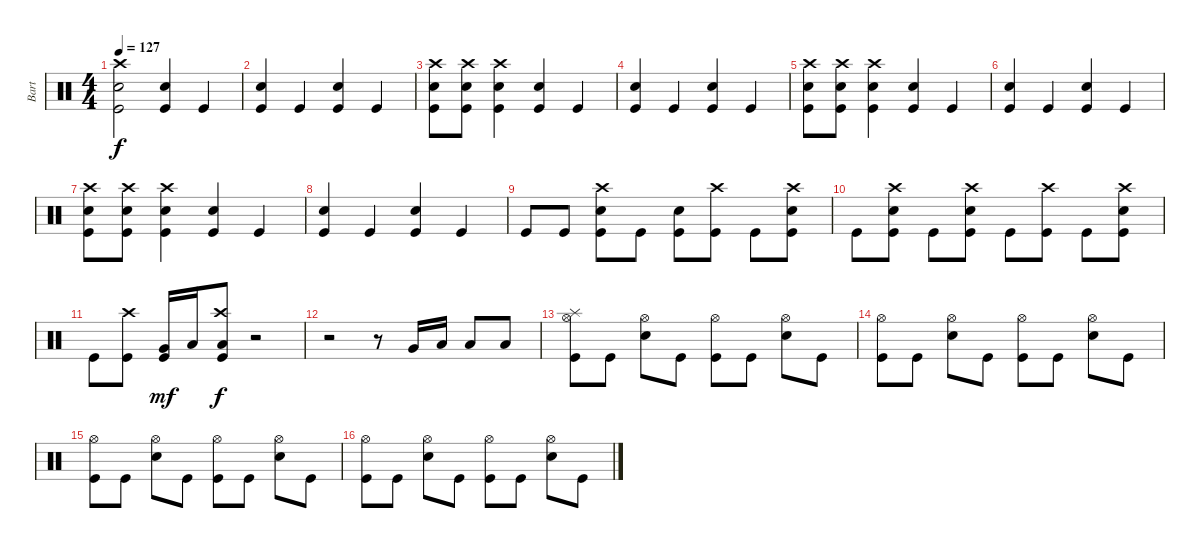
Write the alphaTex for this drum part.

\track ("Bart" "Bart") {instrument percussion}
\staff {score}
\articulation defaults
\ts (4 4)
\tempo 127
\clef neutral
\ks c
("Kick (hit)" "Electric Snare (hit)" "Crash high (hit)").2{dy f} ("Kick (hit)" "Electric Snare (hit)").4 "Kick (hit)".4 |
("Kick (hit)" "Electric Snare (hit)").4 "Kick (hit)".4 ("Kick (hit)" "Electric Snare (hit)").4 "Kick (hit)".4 |
("Kick (hit)" "Electric Snare (hit)" "Crash high (hit)").8 ("Kick (hit)" "Electric Snare (hit)" "Crash high (hit)").8 ("Kick (hit)" "Electric Snare (hit)" "Crash high (hit)").4 ("Kick (hit)" "Electric Snare (hit)").4 "Kick (hit)".4 |
("Kick (hit)" "Electric Snare (hit)").4 "Kick (hit)".4 ("Kick (hit)" "Electric Snare (hit)").4 "Kick (hit)".4 |
("Kick (hit)" "Electric Snare (hit)" "Crash high (hit)").8 ("Kick (hit)" "Electric Snare (hit)" "Crash high (hit)").8 ("Kick (hit)" "Electric Snare (hit)" "Crash high (hit)").4 ("Kick (hit)" "Electric Snare (hit)").4 "Kick (hit)".4 |
("Kick (hit)" "Electric Snare (hit)").4 "Kick (hit)".4 ("Kick (hit)" "Electric Snare (hit)").4 "Kick (hit)".4 |
("Kick (hit)" "Electric Snare (hit)" "Crash high (hit)").8 ("Kick (hit)" "Electric Snare (hit)" "Crash high (hit)").8 ("Kick (hit)" "Electric Snare (hit)" "Crash high (hit)").4 ("Kick (hit)" "Electric Snare (hit)").4 "Kick (hit)".4 |
("Kick (hit)" "Electric Snare (hit)").4 "Kick (hit)".4 ("Kick (hit)" "Electric Snare (hit)").4 "Kick (hit)".4 |
"Kick (hit)".8 "Kick (hit)".8 ("Kick (hit)" "Electric Snare (hit)" "Crash high (hit)").8 "Kick (hit)".8 ("Kick (hit)" "Electric Snare (hit)").8 ("Kick (hit)" "Crash high (hit)").8 "Kick (hit)".8 ("Kick (hit)" "Electric Snare (hit)" "Crash high (hit)").8 |
"Kick (hit)".8 ("Kick (hit)" "Electric Snare (hit)" "Crash high (hit)").8 "Kick (hit)".8 ("Kick (hit)" "Electric Snare (hit)" "Crash high (hit)").8 "Kick (hit)".8 ("Kick (hit)" "Crash high (hit)").8 "Kick (hit)".8 ("Kick (hit)" "Electric Snare (hit)" "Crash high (hit)").8 |
"Kick (hit)".8 ("Kick (hit)" "Crash high (hit)").8 ("Kick (hit)" "Very Low Tom (hit)").16{dy mf} "Low Tom (hit)".16 ("Kick (hit)" "Low Floor Tom (hit)" "Crash high (hit)").8{dy f} r.2 |
r.2 r.8 "Very Low Tom (hit)".16 "Low Tom (hit)".16 "Low Floor Tom (hit)".8 "Low Floor Tom (hit)".8 |
("Kick (hit)" "Hi-Hat (open)" "Splash (hit)").8 "Kick (hit)".8 ("Electric Snare (hit)" "Hi-Hat (open)").8 "Kick (hit)".8 ("Kick (hit)" "Hi-Hat (open)").8 "Kick (hit)".8 ("Electric Snare (hit)" "Hi-Hat (open)").8 "Kick (hit)".8 |
("Kick (hit)" "Hi-Hat (open)").8 "Kick (hit)".8 ("Electric Snare (hit)" "Hi-Hat (open)").8 "Kick (hit)".8 ("Kick (hit)" "Hi-Hat (open)").8 "Kick (hit)".8 ("Electric Snare (hit)" "Hi-Hat (open)").8 "Kick (hit)".8 |
("Kick (hit)" "Hi-Hat (open)").8 "Kick (hit)".8 ("Electric Snare (hit)" "Hi-Hat (open)").8 "Kick (hit)".8 ("Kick (hit)" "Hi-Hat (open)").8 "Kick (hit)".8 ("Electric Snare (hit)" "Hi-Hat (open)").8 "Kick (hit)".8 |
("Kick (hit)" "Hi-Hat (open)").8 "Kick (hit)".8 ("Electric Snare (hit)" "Hi-Hat (open)").8 "Kick (hit)".8 ("Kick (hit)" "Hi-Hat (open)").8 "Kick (hit)".8 ("Electric Snare (hit)" "Hi-Hat (open)").8 "Kick (hit)".8
